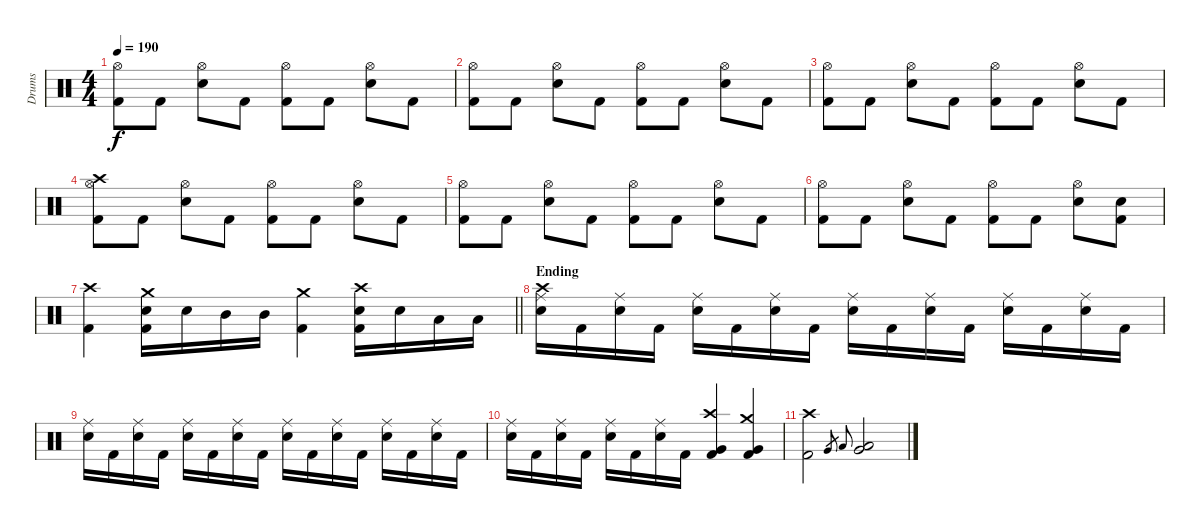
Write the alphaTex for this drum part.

\track ("Drums" "Drums") {instrument percussion}
\staff {score}
\articulation defaults
\ts (4 4)
\tempo 190
\clef neutral
\ks c
("Hi-Hat (open)" "Kick (hit) 2").8{dy f} "Kick (hit) 2".8 ("Hi-Hat (open)" "Snare (hit) 2").8 "Kick (hit) 2".8 ("Hi-Hat (open)" "Kick (hit) 2").8 "Kick (hit) 2".8 ("Hi-Hat (open)" "Snare (hit) 2").8 "Kick (hit) 2".8 |
("Hi-Hat (open)" "Kick (hit) 2").8 "Kick (hit) 2".8 ("Hi-Hat (open)" "Snare (hit) 2").8 "Kick (hit) 2".8 ("Hi-Hat (open)" "Kick (hit) 2").8 "Kick (hit) 2".8 ("Hi-Hat (open)" "Snare (hit) 2").8 "Kick (hit) 2".8 |
("Hi-Hat (open)" "Kick (hit) 2").8 "Kick (hit) 2".8 ("Hi-Hat (open)" "Snare (hit) 2").8 "Kick (hit) 2".8 ("Hi-Hat (open)" "Kick (hit) 2").8 "Kick (hit) 2".8 ("Hi-Hat (open)" "Snare (hit) 2").8 "Kick (hit) 2".8 |
("Crash high (hit)" "Hi-Hat (open)" "Kick (hit) 2").8 "Kick (hit) 2".8 ("Hi-Hat (open)" "Snare (hit) 2").8 "Kick (hit) 2".8 ("Hi-Hat (open)" "Kick (hit) 2").8 "Kick (hit) 2".8 ("Hi-Hat (open)" "Snare (hit) 2").8 "Kick (hit) 2".8 |
("Hi-Hat (open)" "Kick (hit) 2").8 "Kick (hit) 2".8 ("Hi-Hat (open)" "Snare (hit) 2").8 "Kick (hit) 2".8 ("Hi-Hat (open)" "Kick (hit) 2").8 "Kick (hit) 2".8 ("Hi-Hat (open)" "Snare (hit) 2").8 "Kick (hit) 2".8 |
("Hi-Hat (open)" "Kick (hit) 2").8 "Kick (hit) 2".8 ("Hi-Hat (open)" "Snare (hit) 2").8 "Kick (hit) 2".8 ("Hi-Hat (open)" "Kick (hit) 2").8 "Kick (hit) 2".8 ("Hi-Hat (open)" "Snare (hit) 2").8 ("Snare (hit) 2" "Kick (hit) 2").8 |
\barLineRight lightlight
("Crash high (hit)" "Kick (hit) 2").4 ("Crash medium (hit)" "Snare (hit) 2" "Kick (hit) 2").16 "Snare (hit) 2".16 "Mid Tom (hit)".16 "Mid Tom (hit)".16 ("Crash medium (hit)" "Kick (hit) 2").4 ("Crash high (hit)" "Snare (hit) 2" "Kick (hit) 2").16 "Snare (hit) 2".16 "Low Tom (hit)".16 "Low Tom (hit)".16 |
\section ("" "Ending")
("Crash high (hit)" "Ride (middle)" "Snare (hit) 2").16 "Kick (hit) 2".16 ("Ride (middle)" "Snare (hit) 2").16 "Kick (hit) 2".16 ("Ride (middle)" "Snare (hit) 2").16 "Kick (hit) 2".16 ("Ride (middle)" "Snare (hit) 2").16 "Kick (hit) 2".16 ("Ride (middle)" "Snare (hit) 2").16 "Kick (hit) 2".16 ("Ride (middle)" "Snare (hit) 2").16 "Kick (hit) 2".16 ("Ride (middle)" "Snare (hit) 2").16 "Kick (hit) 2".16 ("Ride (middle)" "Snare (hit) 2").16 "Kick (hit) 2".16 |
("Ride (middle)" "Snare (hit) 2").16 "Kick (hit) 2".16 ("Ride (middle)" "Snare (hit) 2").16 "Kick (hit) 2".16 ("Ride (middle)" "Snare (hit) 2").16 "Kick (hit) 2".16 ("Ride (middle)" "Snare (hit) 2").16 "Kick (hit) 2".16 ("Ride (middle)" "Snare (hit) 2").16 "Kick (hit) 2".16 ("Ride (middle)" "Snare (hit) 2").16 "Kick (hit) 2".16 ("Ride (middle)" "Snare (hit) 2").16 "Kick (hit) 2".16 ("Ride (middle)" "Snare (hit) 2").16 "Kick (hit) 2".16 |
("Ride (middle)" "Snare (hit) 2").16 "Kick (hit) 2".16 ("Ride (middle)" "Snare (hit) 2").16 "Kick (hit) 2".16 ("Ride (middle)" "Snare (hit) 2").16 "Kick (hit) 2".16 ("Ride (middle)" "Snare (hit) 2").16 "Kick (hit) 2".16 ("Crash high (hit)" "Very Low Tom (hit)" "Kick (hit) 2").4 ("Crash medium (hit)" "Very Low Tom (hit)" "Kick (hit) 2").4 |
("Crash high (hit)" "Kick (hit) 2").2 "Very Low Tom (hit)".16{gr} "Low Floor Tom (hit)".16{gr onbeat} ("Very Low Tom (hit)" "Low Floor Tom (hit)").2
